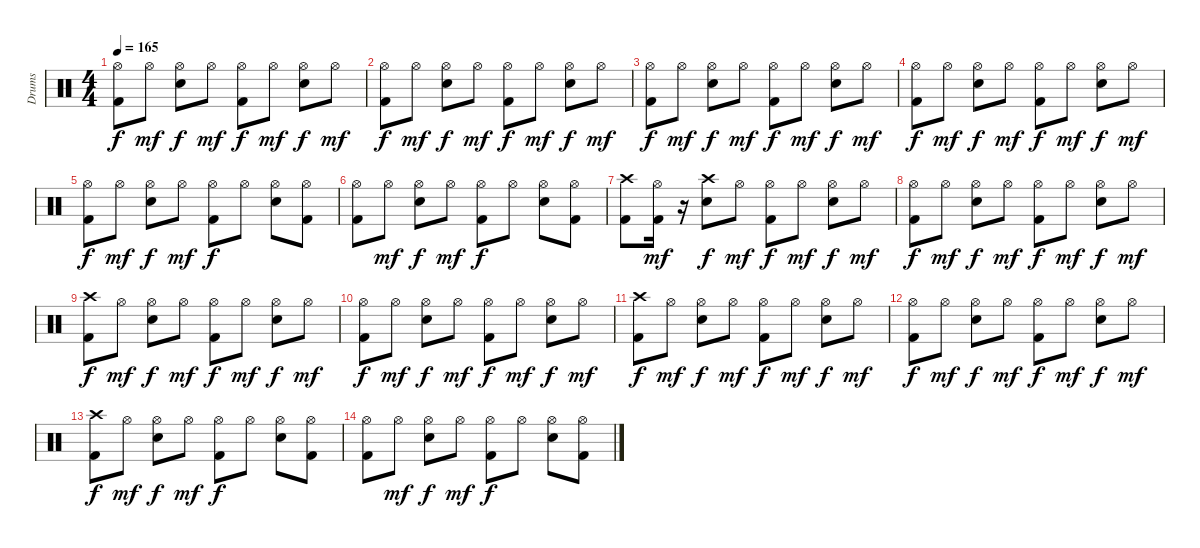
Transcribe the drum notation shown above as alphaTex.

\track ("Drums" "Drums") {instrument percussion}
\staff {score}
\articulation defaults
\ts (4 4)
\tempo 165
\clef neutral
\ks c
("Hi-Hat (open)" "Kick (hit) 2").8{dy f} "Hi-Hat (open)".8{dy mf} ("Hi-Hat (open)" "Electric Snare (hit)").8{dy f} "Hi-Hat (open)".8{dy mf} ("Hi-Hat (open)" "Kick (hit) 2").8{dy f} "Hi-Hat (open)".8{dy mf} ("Hi-Hat (open)" "Electric Snare (hit)").8{dy f} "Hi-Hat (open)".8{dy mf} |
("Hi-Hat (open)" "Kick (hit) 2").8{dy f} "Hi-Hat (open)".8{dy mf} ("Hi-Hat (open)" "Electric Snare (hit)").8{dy f} "Hi-Hat (open)".8{dy mf} ("Hi-Hat (open)" "Kick (hit) 2").8{dy f} "Hi-Hat (open)".8{dy mf} ("Hi-Hat (open)" "Electric Snare (hit)").8{dy f} "Hi-Hat (open)".8{dy mf} |
("Hi-Hat (open)" "Kick (hit) 2").8{dy f} "Hi-Hat (open)".8{dy mf} ("Hi-Hat (open)" "Electric Snare (hit)").8{dy f} "Hi-Hat (open)".8{dy mf} ("Hi-Hat (open)" "Kick (hit) 2").8{dy f} "Hi-Hat (open)".8{dy mf} ("Hi-Hat (open)" "Electric Snare (hit)").8{dy f} "Hi-Hat (open)".8{dy mf} |
("Hi-Hat (open)" "Kick (hit) 2").8{dy f} "Hi-Hat (open)".8{dy mf} ("Hi-Hat (open)" "Electric Snare (hit)").8{dy f} "Hi-Hat (open)".8{dy mf} ("Hi-Hat (open)" "Kick (hit) 2").8{dy f} "Hi-Hat (open)".8{dy mf} ("Hi-Hat (open)" "Electric Snare (hit)").8{dy f} "Hi-Hat (open)".8{dy mf} |
("Hi-Hat (open)" "Kick (hit) 2").8{dy f} "Hi-Hat (open)".8{dy mf} ("Hi-Hat (open)" "Electric Snare (hit)").8{dy f} "Hi-Hat (open)".8{dy mf} ("Hi-Hat (open)" "Kick (hit) 2").8{dy f} "Hi-Hat (open)".8 ("Hi-Hat (open)" "Electric Snare (hit)").8 ("Hi-Hat (open)" "Kick (hit) 2").8 |
("Hi-Hat (open)" "Kick (hit) 2").8 "Hi-Hat (open)".8{dy mf} ("Hi-Hat (open)" "Electric Snare (hit)").8{dy f} "Hi-Hat (open)".8{dy mf} ("Hi-Hat (open)" "Kick (hit) 2").8{dy f} "Hi-Hat (open)".8 ("Hi-Hat (open)" "Electric Snare (hit)").8 ("Hi-Hat (open)" "Kick (hit) 2").8 |
("Crash high (hit)" "Kick (hit) 2").8 ("Hi-Hat (open)" "Kick (hit) 2").16{dy mf} r.16 ("Crash high (hit)" "Electric Snare (hit)").8{dy f} "Hi-Hat (open)".8{dy mf} ("Hi-Hat (open)" "Kick (hit) 2").8{dy f} "Hi-Hat (open)".8{dy mf} ("Hi-Hat (open)" "Electric Snare (hit)").8{dy f} "Hi-Hat (open)".8{dy mf} |
("Hi-Hat (open)" "Kick (hit) 2").8{dy f} "Hi-Hat (open)".8{dy mf} ("Hi-Hat (open)" "Electric Snare (hit)").8{dy f} "Hi-Hat (open)".8{dy mf} ("Hi-Hat (open)" "Kick (hit) 2").8{dy f} "Hi-Hat (open)".8{dy mf} ("Hi-Hat (open)" "Electric Snare (hit)").8{dy f} "Hi-Hat (open)".8{dy mf} |
("Crash high (hit)" "Kick (hit) 2").8{dy f} "Hi-Hat (open)".8{dy mf} ("Hi-Hat (open)" "Electric Snare (hit)").8{dy f} "Hi-Hat (open)".8{dy mf} ("Hi-Hat (open)" "Kick (hit) 2").8{dy f} "Hi-Hat (open)".8{dy mf} ("Hi-Hat (open)" "Electric Snare (hit)").8{dy f} "Hi-Hat (open)".8{dy mf} |
("Hi-Hat (open)" "Kick (hit) 2").8{dy f} "Hi-Hat (open)".8{dy mf} ("Hi-Hat (open)" "Electric Snare (hit)").8{dy f} "Hi-Hat (open)".8{dy mf} ("Hi-Hat (open)" "Kick (hit) 2").8{dy f} "Hi-Hat (open)".8{dy mf} ("Hi-Hat (open)" "Electric Snare (hit)").8{dy f} "Hi-Hat (open)".8{dy mf} |
("Crash high (hit)" "Kick (hit) 2").8{dy f} "Hi-Hat (open)".8{dy mf} ("Hi-Hat (open)" "Electric Snare (hit)").8{dy f} "Hi-Hat (open)".8{dy mf} ("Hi-Hat (open)" "Kick (hit) 2").8{dy f} "Hi-Hat (open)".8{dy mf} ("Hi-Hat (open)" "Electric Snare (hit)").8{dy f} "Hi-Hat (open)".8{dy mf} |
("Hi-Hat (open)" "Kick (hit) 2").8{dy f} "Hi-Hat (open)".8{dy mf} ("Hi-Hat (open)" "Electric Snare (hit)").8{dy f} "Hi-Hat (open)".8{dy mf} ("Hi-Hat (open)" "Kick (hit) 2").8{dy f} "Hi-Hat (open)".8{dy mf} ("Hi-Hat (open)" "Electric Snare (hit)").8{dy f} "Hi-Hat (open)".8{dy mf} |
("Crash high (hit)" "Kick (hit) 2").8{dy f} "Hi-Hat (open)".8{dy mf} ("Hi-Hat (open)" "Electric Snare (hit)").8{dy f} "Hi-Hat (open)".8{dy mf} ("Hi-Hat (open)" "Kick (hit) 2").8{dy f} "Hi-Hat (open)".8 ("Hi-Hat (open)" "Electric Snare (hit)").8 ("Hi-Hat (open)" "Kick (hit) 2").8 |
("Hi-Hat (open)" "Kick (hit) 2").8 "Hi-Hat (open)".8{dy mf} ("Hi-Hat (open)" "Electric Snare (hit)").8{dy f} "Hi-Hat (open)".8{dy mf} ("Hi-Hat (open)" "Kick (hit) 2").8{dy f} "Hi-Hat (open)".8 ("Hi-Hat (open)" "Electric Snare (hit)").8 ("Hi-Hat (open)" "Kick (hit) 2").8
